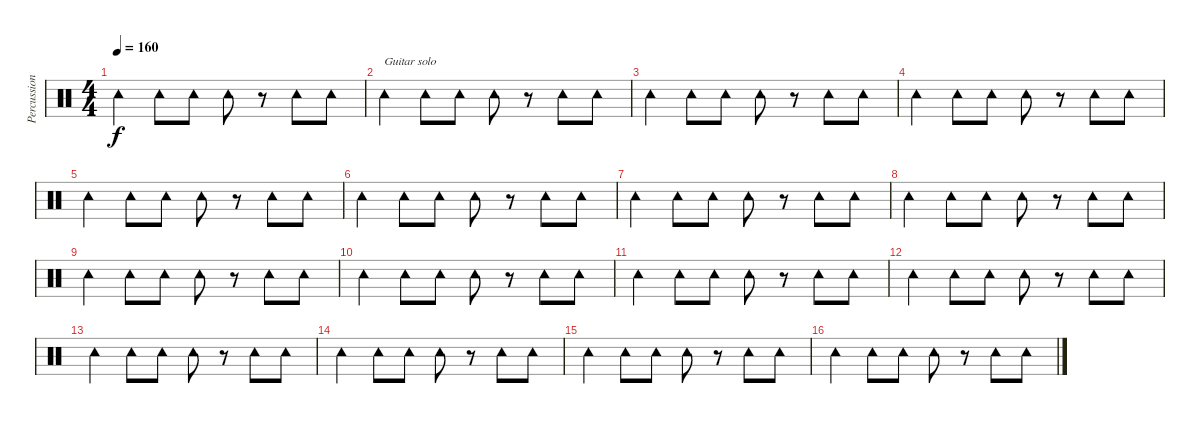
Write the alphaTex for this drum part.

\track ("Percussions" "Percussion") {instrument percussion}
\staff {score}
\articulation defaults
\ts (4 4)
\tempo 160
\clef neutral
\ks c "Tambourine (hit)".4{dy f} "Tambourine (hit)".8 "Tambourine (hit)".8 "Tambourine (hit)".8
r.8 "Tambourine (hit)".8 "Tambourine (hit)".8 |
"Tambourine (hit)".4{txt "Guitar solo"} "Tambourine (hit)".8 "Tambourine (hit)".8 "Tambourine (hit)".8 r.8 "Tambourine (hit)".8 "Tambourine (hit)".8 |
"Tambourine (hit)".4 "Tambourine (hit)".8 "Tambourine (hit)".8 "Tambourine (hit)".8 r.8 "Tambourine (hit)".8 "Tambourine (hit)".8 |
"Tambourine (hit)".4 "Tambourine (hit)".8 "Tambourine (hit)".8 "Tambourine (hit)".8 r.8 "Tambourine (hit)".8 "Tambourine (hit)".8 |
"Tambourine (hit)".4 "Tambourine (hit)".8 "Tambourine (hit)".8 "Tambourine (hit)".8 r.8 "Tambourine (hit)".8 "Tambourine (hit)".8 |
"Tambourine (hit)".4 "Tambourine (hit)".8 "Tambourine (hit)".8 "Tambourine (hit)".8 r.8 "Tambourine (hit)".8 "Tambourine (hit)".8 |
"Tambourine (hit)".4 "Tambourine (hit)".8 "Tambourine (hit)".8 "Tambourine (hit)".8 r.8 "Tambourine (hit)".8 "Tambourine (hit)".8 |
"Tambourine (hit)".4 "Tambourine (hit)".8 "Tambourine (hit)".8 "Tambourine (hit)".8 r.8 "Tambourine (hit)".8 "Tambourine (hit)".8 |
"Tambourine (hit)".4 "Tambourine (hit)".8 "Tambourine (hit)".8 "Tambourine (hit)".8 r.8 "Tambourine (hit)".8 "Tambourine (hit)".8 |
"Tambourine (hit)".4 "Tambourine (hit)".8 "Tambourine (hit)".8 "Tambourine (hit)".8 r.8 "Tambourine (hit)".8 "Tambourine (hit)".8 |
"Tambourine (hit)".4 "Tambourine (hit)".8 "Tambourine (hit)".8 "Tambourine (hit)".8 r.8 "Tambourine (hit)".8 "Tambourine (hit)".8 |
"Tambourine (hit)".4 "Tambourine (hit)".8 "Tambourine (hit)".8 "Tambourine (hit)".8 r.8 "Tambourine (hit)".8 "Tambourine (hit)".8 |
"Tambourine (hit)".4 "Tambourine (hit)".8 "Tambourine (hit)".8 "Tambourine (hit)".8 r.8 "Tambourine (hit)".8 "Tambourine (hit)".8 |
"Tambourine (hit)".4 "Tambourine (hit)".8 "Tambourine (hit)".8 "Tambourine (hit)".8 r.8 "Tambourine (hit)".8 "Tambourine (hit)".8 |
"Tambourine (hit)".4 "Tambourine (hit)".8 "Tambourine (hit)".8 "Tambourine (hit)".8 r.8 "Tambourine (hit)".8 "Tambourine (hit)".8 |
"Tambourine (hit)".4 "Tambourine (hit)".8 "Tambourine (hit)".8 "Tambourine (hit)".8 r.8 "Tambourine (hit)".8 "Tambourine (hit)".8
